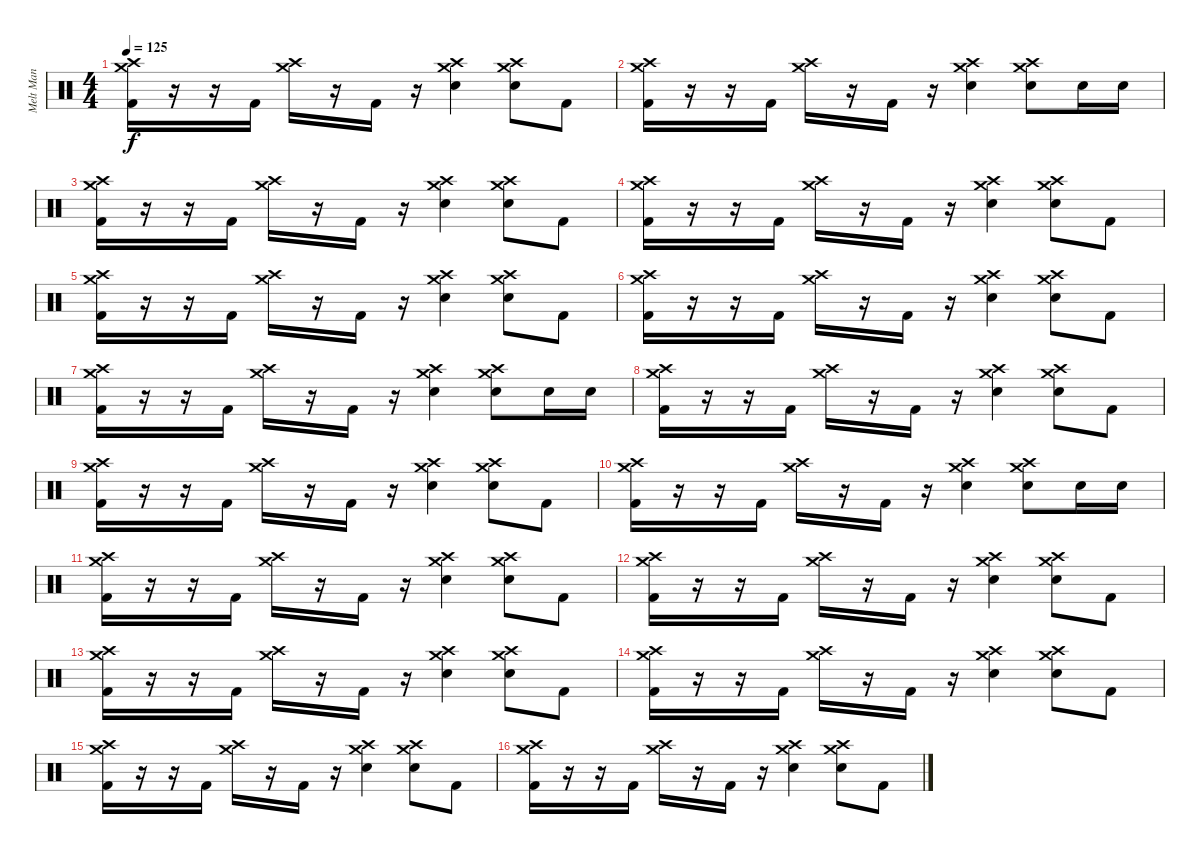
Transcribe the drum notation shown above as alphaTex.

\track ("Melt Man" "Melt Man") {instrument percussion}
\staff {score}
\articulation defaults
\ts (4 4)
\tempo 125
\clef neutral
\ks c
("Crash high (hit)" "Crash medium (hit)" "Kick (hit) 2").16{dy f} r.16 r.16 "Kick (hit) 2".16 ("Crash high (hit)" "Crash medium (hit)").16 r.16 "Kick (hit) 2".16 r.16 ("Crash high (hit)" "Crash medium (hit)" "Snare (hit) 2").4 ("Crash high (hit)" "Crash medium (hit)" "Snare (hit) 2").8 "Kick (hit) 2".8 |
("Crash high (hit)" "Crash medium (hit)" "Kick (hit) 2").16 r.16 r.16 "Kick (hit) 2".16 ("Crash high (hit)" "Crash medium (hit)").16 r.16 "Kick (hit) 2".16 r.16 ("Crash high (hit)" "Crash medium (hit)" "Snare (hit) 2").4 ("Crash high (hit)" "Crash medium (hit)" "Snare (hit) 2").8 "Snare (hit) 2".16 "Snare (hit) 2".16 |
("Crash high (hit)" "Crash medium (hit)" "Kick (hit) 2").16 r.16 r.16 "Kick (hit) 2".16 ("Crash high (hit)" "Crash medium (hit)").16 r.16 "Kick (hit) 2".16 r.16 ("Crash high (hit)" "Crash medium (hit)" "Snare (hit) 2").4 ("Crash high (hit)" "Crash medium (hit)" "Snare (hit) 2").8 "Kick (hit) 2".8 |
("Crash high (hit)" "Crash medium (hit)" "Kick (hit) 2").16 r.16 r.16 "Kick (hit) 2".16 ("Crash high (hit)" "Crash medium (hit)").16 r.16 "Kick (hit) 2".16 r.16 ("Crash high (hit)" "Crash medium (hit)" "Snare (hit) 2").4 ("Crash high (hit)" "Crash medium (hit)" "Snare (hit) 2").8 "Kick (hit) 2".8 |
("Crash high (hit)" "Crash medium (hit)" "Kick (hit) 2").16 r.16 r.16 "Kick (hit) 2".16 ("Crash high (hit)" "Crash medium (hit)").16 r.16 "Kick (hit) 2".16 r.16 ("Crash high (hit)" "Crash medium (hit)" "Snare (hit) 2").4 ("Crash high (hit)" "Crash medium (hit)" "Snare (hit) 2").8 "Kick (hit) 2".8 |
("Crash high (hit)" "Crash medium (hit)" "Kick (hit) 2").16 r.16 r.16 "Kick (hit) 2".16 ("Crash high (hit)" "Crash medium (hit)").16 r.16 "Kick (hit) 2".16 r.16 ("Crash high (hit)" "Crash medium (hit)" "Snare (hit) 2").4 ("Crash high (hit)" "Crash medium (hit)" "Snare (hit) 2").8 "Kick (hit) 2".8 |
("Crash high (hit)" "Crash medium (hit)" "Kick (hit) 2").16 r.16 r.16 "Kick (hit) 2".16 ("Crash high (hit)" "Crash medium (hit)").16 r.16 "Kick (hit) 2".16 r.16 ("Crash high (hit)" "Crash medium (hit)" "Snare (hit) 2").4 ("Crash high (hit)" "Crash medium (hit)" "Snare (hit) 2").8 "Snare (hit) 2".16 "Snare (hit) 2".16 |
("Crash high (hit)" "Crash medium (hit)" "Kick (hit) 2").16 r.16 r.16 "Kick (hit) 2".16 ("Crash high (hit)" "Crash medium (hit)").16 r.16 "Kick (hit) 2".16 r.16 ("Crash high (hit)" "Crash medium (hit)" "Snare (hit) 2").4 ("Crash high (hit)" "Crash medium (hit)" "Snare (hit) 2").8 "Kick (hit) 2".8 |
("Crash high (hit)" "Crash medium (hit)" "Kick (hit) 2").16 r.16 r.16 "Kick (hit) 2".16 ("Crash high (hit)" "Crash medium (hit)").16 r.16 "Kick (hit) 2".16 r.16 ("Crash high (hit)" "Crash medium (hit)" "Snare (hit) 2").4 ("Crash high (hit)" "Crash medium (hit)" "Snare (hit) 2").8 "Kick (hit) 2".8 |
("Crash high (hit)" "Crash medium (hit)" "Kick (hit) 2").16 r.16 r.16 "Kick (hit) 2".16 ("Crash high (hit)" "Crash medium (hit)").16 r.16 "Kick (hit) 2".16 r.16 ("Crash high (hit)" "Crash medium (hit)" "Snare (hit) 2").4 ("Crash high (hit)" "Crash medium (hit)" "Snare (hit) 2").8 "Snare (hit) 2".16 "Snare (hit) 2".16 |
("Crash high (hit)" "Crash medium (hit)" "Kick (hit) 2").16 r.16 r.16 "Kick (hit) 2".16 ("Crash high (hit)" "Crash medium (hit)").16 r.16 "Kick (hit) 2".16 r.16 ("Crash high (hit)" "Crash medium (hit)" "Snare (hit) 2").4 ("Crash high (hit)" "Crash medium (hit)" "Snare (hit) 2").8 "Kick (hit) 2".8 |
("Crash high (hit)" "Crash medium (hit)" "Kick (hit) 2").16 r.16 r.16 "Kick (hit) 2".16 ("Crash high (hit)" "Crash medium (hit)").16 r.16 "Kick (hit) 2".16 r.16 ("Crash high (hit)" "Crash medium (hit)" "Snare (hit) 2").4 ("Crash high (hit)" "Crash medium (hit)" "Snare (hit) 2").8 "Kick (hit) 2".8 |
("Crash high (hit)" "Crash medium (hit)" "Kick (hit) 2").16 r.16 r.16 "Kick (hit) 2".16 ("Crash high (hit)" "Crash medium (hit)").16 r.16 "Kick (hit) 2".16 r.16 ("Crash high (hit)" "Crash medium (hit)" "Snare (hit) 2").4 ("Crash high (hit)" "Crash medium (hit)" "Snare (hit) 2").8 "Kick (hit) 2".8 |
("Crash high (hit)" "Crash medium (hit)" "Kick (hit) 2").16 r.16 r.16 "Kick (hit) 2".16 ("Crash high (hit)" "Crash medium (hit)").16 r.16 "Kick (hit) 2".16 r.16 ("Crash high (hit)" "Crash medium (hit)" "Snare (hit) 2").4 ("Crash high (hit)" "Crash medium (hit)" "Snare (hit) 2").8 "Kick (hit) 2".8 |
("Crash high (hit)" "Crash medium (hit)" "Kick (hit) 2").16 r.16 r.16 "Kick (hit) 2".16 ("Crash high (hit)" "Crash medium (hit)").16 r.16 "Kick (hit) 2".16 r.16 ("Crash high (hit)" "Crash medium (hit)" "Snare (hit) 2").4 ("Crash high (hit)" "Crash medium (hit)" "Snare (hit) 2").8 "Kick (hit) 2".8 |
("Crash high (hit)" "Crash medium (hit)" "Kick (hit) 2").16 r.16 r.16 "Kick (hit) 2".16 ("Crash high (hit)" "Crash medium (hit)").16 r.16 "Kick (hit) 2".16 r.16 ("Crash high (hit)" "Crash medium (hit)" "Snare (hit) 2").4 ("Crash high (hit)" "Crash medium (hit)" "Snare (hit) 2").8 "Kick (hit) 2".8
